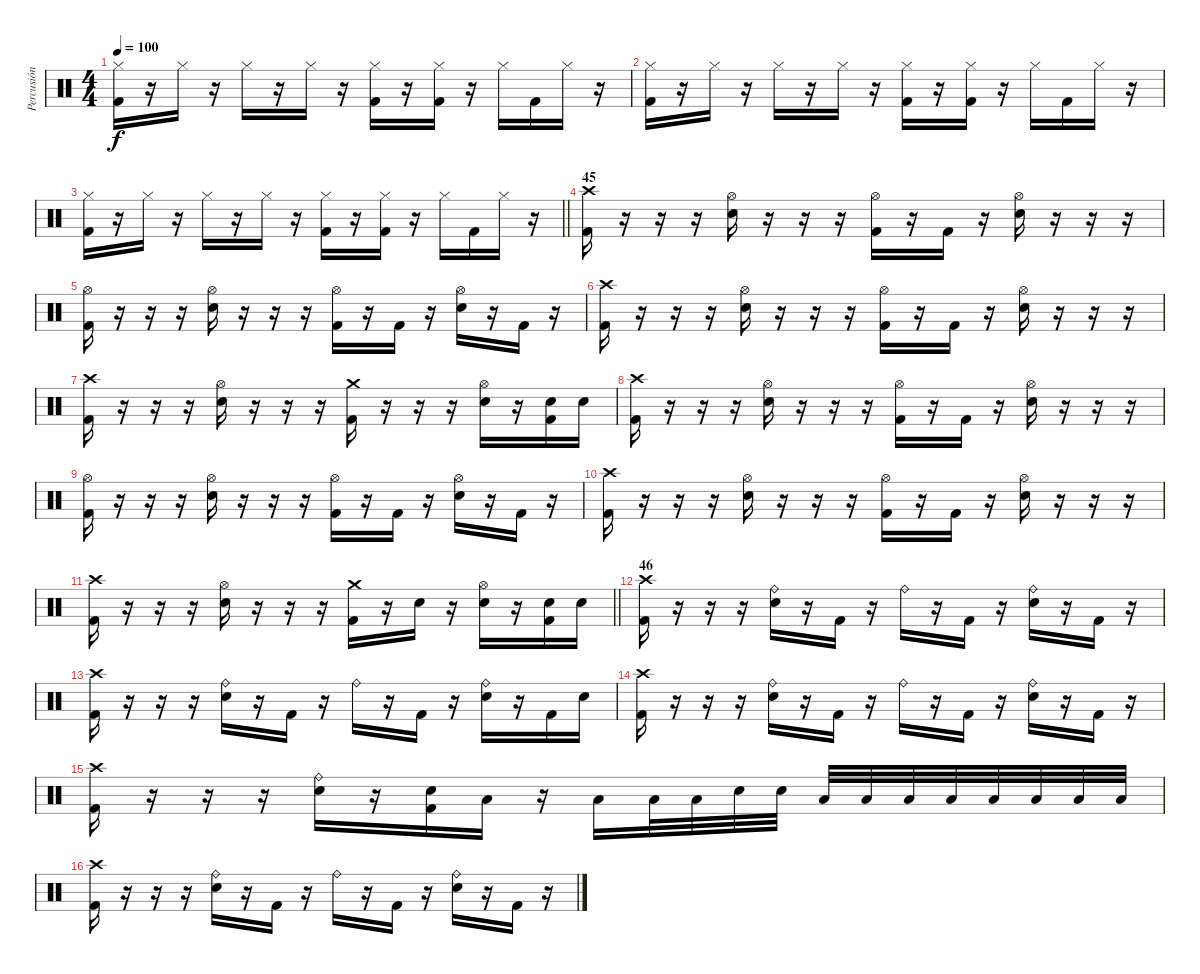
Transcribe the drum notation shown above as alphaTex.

\track ("Percusión" "Percusión") {instrument percussion}
\staff {score}
\articulation defaults
\ts (4 4)
\tempo 100
\clef neutral
\ks c
("Hi-Hat (closed)" "Kick (hit) 2").16{dy f} r.16 "Hi-Hat (closed)".16 r.16 "Hi-Hat (closed)".16 r.16 "Hi-Hat (closed)".16 r.16 ("Hi-Hat (closed)" "Kick (hit) 2").16 r.16 ("Hi-Hat (closed)" "Kick (hit) 2").16 r.16 "Hi-Hat (closed)".16 "Kick (hit) 2".16 "Hi-Hat (closed)".16 r.16 |
("Hi-Hat (closed)" "Kick (hit) 2").16 r.16 "Hi-Hat (closed)".16 r.16 "Hi-Hat (closed)".16 r.16 "Hi-Hat (closed)".16 r.16 ("Hi-Hat (closed)" "Kick (hit) 2").16 r.16 ("Hi-Hat (closed)" "Kick (hit) 2").16 r.16 "Hi-Hat (closed)".16 "Kick (hit) 2".16 "Hi-Hat (closed)".16 r.16 |
\barLineRight lightlight
("Hi-Hat (closed)" "Kick (hit) 2").16 r.16 "Hi-Hat (closed)".16 r.16 "Hi-Hat (closed)".16 r.16 "Hi-Hat (closed)".16 r.16 ("Hi-Hat (closed)" "Kick (hit) 2").16 r.16 ("Hi-Hat (closed)" "Kick (hit) 2").16 r.16 "Hi-Hat (closed)".16 "Kick (hit) 2".16 "Hi-Hat (closed)".16 r.16 |
\section ("" "45")
("Crash high (hit)" "Kick (hit) 2").16 r.16 r.16 r.16 ("Hi-Hat (open)" "Electric Snare (hit)").16 r.16 r.16 r.16 ("Hi-Hat (open)" "Kick (hit) 2").16 r.16 "Kick (hit) 2".16 r.16 ("Hi-Hat (open)" "Electric Snare (hit)").16 r.16 r.16 r.16 |
("Hi-Hat (open)" "Kick (hit) 2").16 r.16 r.16 r.16 ("Hi-Hat (open)" "Electric Snare (hit)").16 r.16 r.16 r.16 ("Hi-Hat (open)" "Kick (hit) 2").16 r.16 "Kick (hit) 2".16 r.16 ("Hi-Hat (open)" "Electric Snare (hit)").16 r.16 "Kick (hit) 2".16 r.16 |
("Crash high (hit)" "Kick (hit) 2").16 r.16 r.16 r.16 ("Hi-Hat (open)" "Electric Snare (hit)").16 r.16 r.16 r.16 ("Hi-Hat (open)" "Kick (hit) 2").16 r.16 "Kick (hit) 2".16 r.16 ("Hi-Hat (open)" "Electric Snare (hit)").16 r.16 r.16 r.16 |
("Crash high (hit)" "Kick (hit) 2").16 r.16 r.16 r.16 ("Hi-Hat (open)" "Electric Snare (hit)").16 r.16 r.16 r.16 ("Crash medium (hit)" "Kick (hit) 2").16 r.16 r.16 r.16 ("Hi-Hat (open)" "Electric Snare (hit)").16 r.16 ("Electric Snare (hit)" "Kick (hit) 2").16 "Electric Snare (hit)".16 |
("Crash high (hit)" "Kick (hit) 2").16 r.16 r.16 r.16 ("Hi-Hat (open)" "Electric Snare (hit)").16 r.16 r.16 r.16 ("Hi-Hat (open)" "Kick (hit) 2").16 r.16 "Kick (hit) 2".16 r.16 ("Hi-Hat (open)" "Electric Snare (hit)").16 r.16 r.16 r.16 |
("Hi-Hat (open)" "Kick (hit) 2").16 r.16 r.16 r.16 ("Hi-Hat (open)" "Electric Snare (hit)").16 r.16 r.16 r.16 ("Hi-Hat (open)" "Kick (hit) 2").16 r.16 "Kick (hit) 2".16 r.16 ("Hi-Hat (open)" "Electric Snare (hit)").16 r.16 "Kick (hit) 2".16 r.16 |
("Crash high (hit)" "Kick (hit) 2").16 r.16 r.16 r.16 ("Hi-Hat (open)" "Electric Snare (hit)").16 r.16 r.16 r.16 ("Hi-Hat (open)" "Kick (hit) 2").16 r.16 "Kick (hit) 2".16 r.16 ("Hi-Hat (open)" "Electric Snare (hit)").16 r.16 r.16 r.16 |
\barLineRight lightlight
("Crash high (hit)" "Kick (hit) 2").16 r.16 r.16 r.16 ("Hi-Hat (open)" "Electric Snare (hit)").16 r.16 r.16 r.16 ("Crash medium (hit)" "Kick (hit) 2").16 r.16 "Electric Snare (hit)".16 r.16 ("Hi-Hat (open)" "Electric Snare (hit)").16 r.16 ("Electric Snare (hit)" "Kick (hit) 2").16 "Electric Snare (hit)".16 |
\section ("" "46")
("Crash high (hit)" "Kick (hit) 2").16 r.16 r.16 r.16 ("Ride (bell)" "Electric Snare (hit)").16 r.16 "Kick (hit) 2".16 r.16 "Ride (bell)".16 r.16 "Kick (hit) 2".16 r.16 ("Ride (bell)" "Electric Snare (hit)").16 r.16 "Kick (hit) 2".16 r.16 |
("Crash high (hit)" "Kick (hit) 2").16 r.16 r.16 r.16 ("Ride (bell)" "Electric Snare (hit)").16 r.16 "Kick (hit) 2".16 r.16 "Ride (bell)".16 r.16 "Kick (hit) 2".16 r.16 ("Ride (bell)" "Electric Snare (hit)").16 r.16 "Kick (hit) 2".16 "Electric Snare (hit)".16 |
("Crash high (hit)" "Kick (hit) 2").16 r.16 r.16 r.16 ("Ride (bell)" "Electric Snare (hit)").16 r.16 "Kick (hit) 2".16 r.16 "Ride (bell)".16 r.16 "Kick (hit) 2".16 r.16 ("Ride (bell)" "Electric Snare (hit)").16 r.16 "Kick (hit) 2".16 r.16 |
("Crash high (hit)" "Kick (hit) 2").16 r.16 r.16 r.16 ("Ride (bell)" "Electric Snare (hit)").16 r.16 ("Electric Snare (hit)" "Kick (hit) 2").16 "Low Tom (hit)".16 r.16 "Low Tom (hit)".16 "Low Tom (hit)".32 "Low Tom (hit)".32 "Electric Snare (hit)".32 "Electric Snare (hit)".32 "Low Floor Tom (hit)".32 "Low Floor Tom (hit)".32 "Low Floor Tom (hit)".32 "Low Floor Tom (hit)".32 "Low Tom (hit)".32 "Low Tom (hit)".32 "Low Tom (hit)".32 "Low Tom (hit)".32 |
("Crash high (hit)" "Kick (hit) 2").16 r.16 r.16 r.16 ("Ride (bell)" "Electric Snare (hit)").16 r.16 "Kick (hit) 2".16 r.16 "Ride (bell)".16 r.16 "Kick (hit) 2".16 r.16 ("Ride (bell)" "Electric Snare (hit)").16 r.16 "Kick (hit) 2".16 r.16
